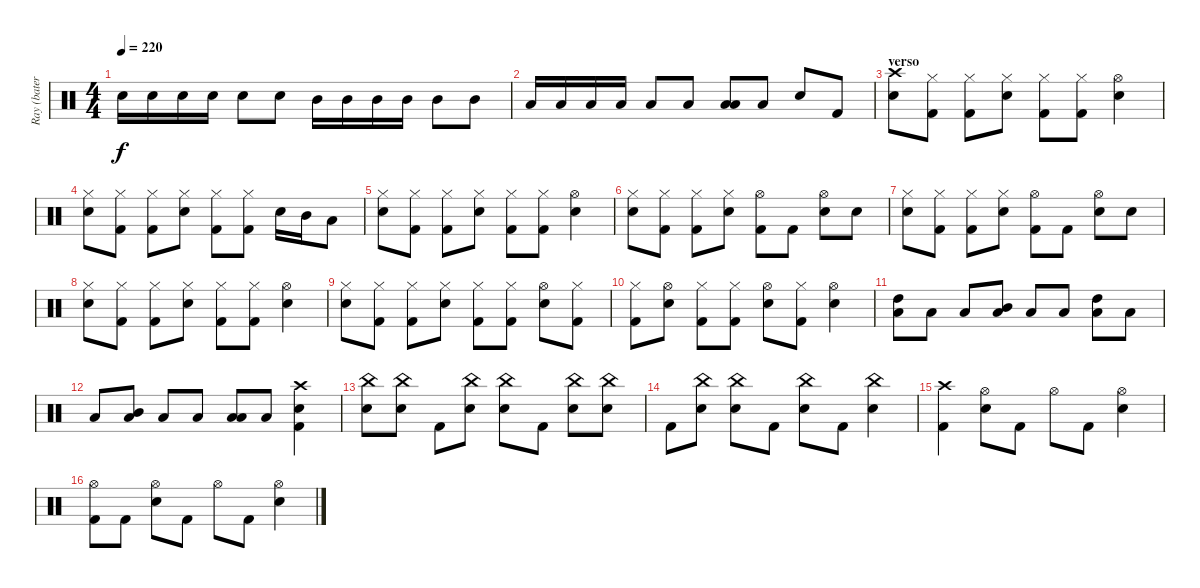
\track ("Ray (batería)" "Ray (bater") {instrument percussion}
\staff {score}
\articulation defaults
\ts (4 4)
\tempo 220
\clef neutral
\ks c "Snare (hit) 2".16{dy f} "Snare (hit) 2".16 "Snare (hit) 2".16 "Snare (hit) 2".16 "Snare (hit) 2".8 "Snare (hit) 2".8 "Mid Tom (hit)".16 "Mid Tom (hit)".16 "Mid Tom (hit)".16 "Mid Tom (hit)".16 "Mid Tom (hit)".8 "Mid Tom (hit)".8
|
"Low Tom (hit)".16 "Low Tom (hit)".16 "Low Tom (hit)".16 "Low Tom (hit)".16 "Low Tom (hit)".8 "Low Tom (hit)".8 ("Low Tom (hit)" "Low Floor Tom (hit)").8 "Low Floor Tom (hit)".8 "Snare (hit) 2".8 "Kick (hit) 2".8 |
\section ("" "verso")
("Crash high (hit)" "Snare (hit) 2").8 ("Hi-Hat (closed)" "Kick (hit) 2").8 ("Hi-Hat (closed)" "Kick (hit) 2").8 ("Hi-Hat (closed)" "Snare (hit) 2").8 ("Hi-Hat (closed)" "Kick (hit) 2").8 ("Hi-Hat (closed)" "Kick (hit) 2").8 ("Hi-Hat (open)" "Snare (hit) 2").4 |
("Hi-Hat (closed)" "Snare (hit) 2").8 ("Hi-Hat (closed)" "Kick (hit) 2").8 ("Hi-Hat (closed)" "Kick (hit) 2").8 ("Hi-Hat (closed)" "Snare (hit) 2").8 ("Hi-Hat (closed)" "Kick (hit) 2").8 ("Hi-Hat (closed)" "Kick (hit) 2").8 "Snare (hit) 2".16 "Mid Tom (hit)".16 "Low Tom (hit)".8 |
("Hi-Hat (closed)" "Snare (hit) 2").8 ("Hi-Hat (closed)" "Kick (hit) 2").8 ("Hi-Hat (closed)" "Kick (hit) 2").8 ("Hi-Hat (closed)" "Snare (hit) 2").8 ("Hi-Hat (closed)" "Kick (hit) 2").8 ("Hi-Hat (closed)" "Kick (hit) 2").8 ("Hi-Hat (open)" "Snare (hit) 2").4 |
("Hi-Hat (closed)" "Snare (hit) 2").8 ("Hi-Hat (closed)" "Kick (hit) 2").8 ("Hi-Hat (closed)" "Kick (hit) 2").8 ("Hi-Hat (closed)" "Snare (hit) 2").8 ("Hi-Hat (open)" "Kick (hit) 2").8 "Kick (hit) 2".8 ("Hi-Hat (open)" "Snare (hit) 2").8 "Snare (hit) 2".8 |
("Hi-Hat (closed)" "Snare (hit) 2").8 ("Hi-Hat (closed)" "Kick (hit) 2").8 ("Hi-Hat (closed)" "Kick (hit) 2").8 ("Hi-Hat (closed)" "Snare (hit) 2").8 ("Hi-Hat (open)" "Kick (hit) 2").8 "Kick (hit) 2".8 ("Hi-Hat (open)" "Snare (hit) 2").8 "Snare (hit) 2".8 |
("Hi-Hat (closed)" "Snare (hit) 2").8 ("Hi-Hat (closed)" "Kick (hit) 2").8 ("Hi-Hat (closed)" "Kick (hit) 2").8 ("Hi-Hat (closed)" "Snare (hit) 2").8 ("Hi-Hat (closed)" "Kick (hit) 2").8 ("Hi-Hat (closed)" "Kick (hit) 2").8 ("Hi-Hat (open)" "Snare (hit) 2").4 |
("Hi-Hat (closed)" "Snare (hit) 2").8 ("Hi-Hat (closed)" "Kick (hit) 2").8 ("Hi-Hat (closed)" "Kick (hit) 2").8 ("Hi-Hat (closed)" "Snare (hit) 2").8 ("Hi-Hat (closed)" "Kick (hit) 2").8 ("Hi-Hat (closed)" "Kick (hit) 2").8 ("Hi-Hat (open)" "Snare (hit) 2").8 ("Hi-Hat (closed)" "Kick (hit) 2").8 |
("Hi-Hat (closed)" "Kick (hit) 2").8 ("Hi-Hat (open)" "Snare (hit) 2").8 ("Hi-Hat (closed)" "Kick (hit) 2").8 ("Hi-Hat (closed)" "Kick (hit) 2").8 ("Hi-Hat (open)" "Snare (hit) 2").8 ("Hi-Hat (closed)" "Kick (hit) 2").8 ("Hi-Hat (open)" "Snare (hit) 2").4 |
("High Tom (hit)" "Low Tom (hit)").8 "Low Tom (hit)".8 "Low Tom (hit)".8 ("Mid Tom (hit)" "Low Tom (hit)").8 "Low Tom (hit)".8 "Low Tom (hit)".8 ("High Tom (hit)" "Low Tom (hit)").8 "Low Tom (hit)".8 |
"Low Tom (hit)".8 ("Mid Tom (hit)" "Low Tom (hit)").8 "Low Tom (hit)".8 "Low Tom (hit)".8 ("Low Tom (hit)" "Low Floor Tom (hit)").8 "Low Tom (hit)".8 ("Crash high (hit)" "Snare (hit) 2" "Kick (hit) 2").4 |
("China (hit)" "Snare (hit) 2").8 ("China (hit)" "Snare (hit) 2").8 "Kick (hit) 2".8 ("China (hit)" "Snare (hit) 2").8 ("China (hit)" "Snare (hit) 2").8 "Kick (hit) 2".8 ("China (hit)" "Snare (hit) 2").8 ("China (hit)" "Snare (hit) 2").8 |
"Kick (hit) 2".8 ("China (hit)" "Snare (hit) 2").8 ("China (hit)" "Snare (hit) 2").8 "Kick (hit) 2".8 ("China (hit)" "Snare (hit) 2").8 "Kick (hit) 2".8 ("China (hit)" "Snare (hit) 2").4 |
\section ("" "")
("Crash high (hit)" "Kick (hit) 2").4 ("Hi-Hat (open)" "Snare (hit) 2").8 "Kick (hit) 2".8 "Hi-Hat (open)".8 "Kick (hit) 2".8 ("Hi-Hat (open)" "Snare (hit) 2").4 |
("Hi-Hat (open)" "Kick (hit) 2").8 "Kick (hit) 2".8 ("Hi-Hat (open)" "Snare (hit) 2").8 "Kick (hit) 2".8 "Hi-Hat (open)".8 "Kick (hit) 2".8 ("Hi-Hat (open)" "Snare (hit) 2").4
